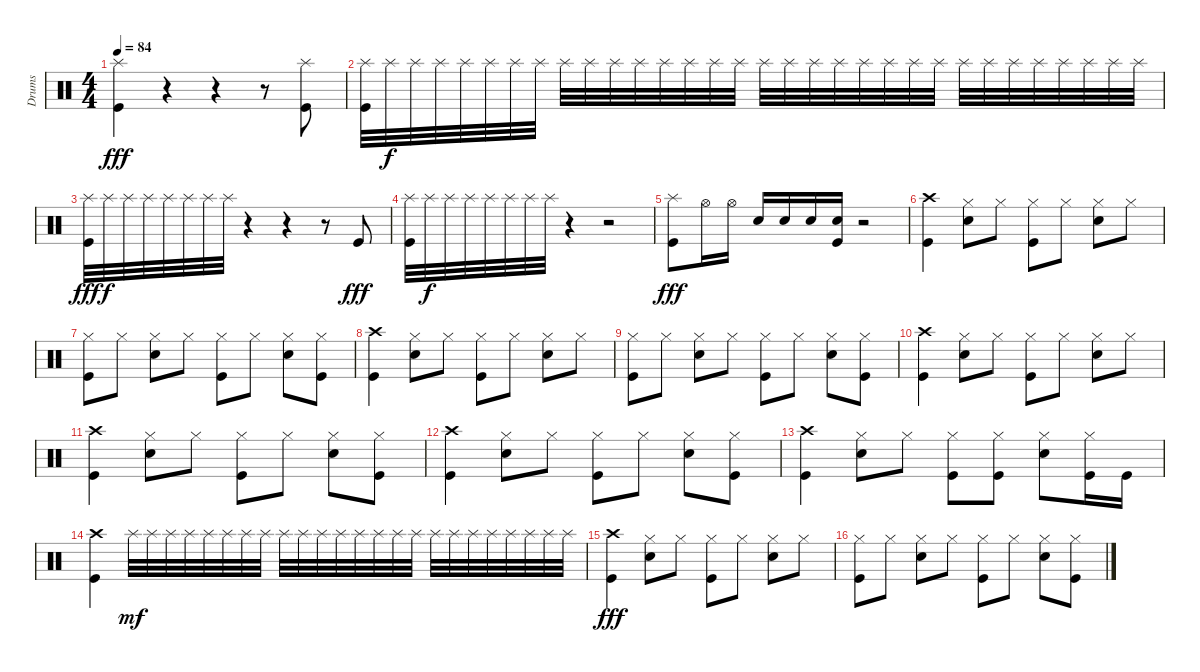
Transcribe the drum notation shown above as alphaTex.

\track ("Drums" "Drums") {instrument percussion}
\staff {score}
\articulation defaults
\ts (4 4)
\tempo 84
\clef neutral
\ks c
("Splash (hit)" "Kick (hit)").4{dy fff} r.4 r.4 r.8 ("Splash (hit)" "Kick (hit)").8 |
("Splash (hit)" "Kick (hit)").32 "Splash (hit)".32{dy f} "Splash (hit)".32 "Splash (hit)".32 "Splash (hit)".32 "Splash (hit)".32 "Splash (hit)".32 "Splash (hit)".32 "Splash (hit)".32 "Splash (hit)".32 "Splash (hit)".32 "Splash (hit)".32 "Splash (hit)".32 "Splash (hit)".32 "Splash (hit)".32 "Splash (hit)".32 "Splash (hit)".32 "Splash (hit)".32 "Splash (hit)".32 "Splash (hit)".32 "Splash (hit)".32 "Splash (hit)".32 "Splash (hit)".32 "Splash (hit)".32 "Splash (hit)".32 "Splash (hit)".32 "Splash (hit)".32 "Splash (hit)".32 "Splash (hit)".32 "Splash (hit)".32 "Splash (hit)".32 "Splash (hit)".32 |
("Splash (hit)" "Kick (hit)").32{dy fff} "Splash (hit)".32{dy f} "Splash (hit)".32 "Splash (hit)".32 "Splash (hit)".32 "Splash (hit)".32 "Splash (hit)".32 "Splash (hit)".32 r.4 r.4 r.8 "Kick (hit)".8{dy fff} |
("Splash (hit)" "Kick (hit)").32 "Splash (hit)".32{dy f} "Splash (hit)".32 "Splash (hit)".32 "Splash (hit)".32 "Splash (hit)".32 "Splash (hit)".32 "Splash (hit)".32 r.4 r.2 |
("Splash (hit)" "Kick (hit)").8{dy fff} "Hi-Hat (open)".16 "Hi-Hat (open)".16 "Snare (hit) 2".16 "Snare (hit) 2".16 "Snare (hit) 2".16 ("Snare (hit) 2" "Kick (hit)").16 r.2 |
("Crash high (hit)" "Kick (hit)").4 ("Hi-Hat (closed)" "Snare (hit) 2").8 "Hi-Hat (closed)".8 ("Hi-Hat (closed)" "Kick (hit)").8 "Hi-Hat (closed)".8 ("Hi-Hat (closed)" "Snare (hit) 2").8 "Hi-Hat (closed)".8 |
("Hi-Hat (closed)" "Kick (hit)").8 "Hi-Hat (closed)".8 ("Hi-Hat (closed)" "Snare (hit) 2").8 "Hi-Hat (closed)".8 ("Hi-Hat (closed)" "Kick (hit)").8 "Hi-Hat (closed)".8 ("Hi-Hat (closed)" "Snare (hit) 2").8 ("Hi-Hat (closed)" "Kick (hit)").8 |
("Crash high (hit)" "Kick (hit)").4 ("Hi-Hat (closed)" "Snare (hit) 2").8 "Hi-Hat (closed)".8 ("Hi-Hat (closed)" "Kick (hit)").8 "Hi-Hat (closed)".8 ("Hi-Hat (closed)" "Snare (hit) 2").8 "Hi-Hat (closed)".8 |
("Hi-Hat (closed)" "Kick (hit)").8 "Hi-Hat (closed)".8 ("Hi-Hat (closed)" "Snare (hit) 2").8 "Hi-Hat (closed)".8 ("Hi-Hat (closed)" "Kick (hit)").8 "Hi-Hat (closed)".8 ("Hi-Hat (closed)" "Snare (hit) 2").8 ("Hi-Hat (closed)" "Kick (hit)").8 |
("Crash high (hit)" "Kick (hit)").4 ("Hi-Hat (closed)" "Snare (hit) 2").8 "Hi-Hat (closed)".8 ("Hi-Hat (closed)" "Kick (hit)").8 "Hi-Hat (closed)".8 ("Hi-Hat (closed)" "Snare (hit) 2").8 "Hi-Hat (closed)".8 |
("Crash high (hit)" "Kick (hit)").4 ("Hi-Hat (closed)" "Snare (hit) 2").8 "Hi-Hat (closed)".8 ("Hi-Hat (closed)" "Kick (hit)").8 "Hi-Hat (closed)".8 ("Hi-Hat (closed)" "Snare (hit) 2").8 ("Hi-Hat (closed)" "Kick (hit)").8 |
("Crash high (hit)" "Kick (hit)").4 ("Hi-Hat (closed)" "Snare (hit) 2").8 "Hi-Hat (closed)".8 ("Hi-Hat (closed)" "Kick (hit)").8 "Hi-Hat (closed)".8 ("Hi-Hat (closed)" "Snare (hit) 2").8 ("Hi-Hat (closed)" "Kick (hit)").8 |
("Crash high (hit)" "Kick (hit)").4 ("Hi-Hat (closed)" "Snare (hit) 2").8 "Hi-Hat (closed)".8 ("Hi-Hat (closed)" "Kick (hit)").8 ("Hi-Hat (closed)" "Kick (hit)").8 ("Hi-Hat (closed)" "Snare (hit) 2").8 ("Hi-Hat (closed)" "Kick (hit)").16 "Kick (hit)".16 |
("Crash high (hit)" "Kick (hit)").4 "Splash (hit)".32{dy mf} "Splash (hit)".32 "Splash (hit)".32 "Splash (hit)".32 "Splash (hit)".32 "Splash (hit)".32 "Splash (hit)".32 "Splash (hit)".32 "Splash (hit)".32 "Splash (hit)".32 "Splash (hit)".32 "Splash (hit)".32 "Splash (hit)".32 "Splash (hit)".32 "Splash (hit)".32 "Splash (hit)".32 "Splash (hit)".32 "Splash (hit)".32 "Splash (hit)".32 "Splash (hit)".32 "Splash (hit)".32 "Splash (hit)".32 "Splash (hit)".32 "Splash (hit)".32 |
("Crash high (hit)" "Kick (hit)").4{dy fff} ("Hi-Hat (closed)" "Snare (hit) 2").8 "Hi-Hat (closed)".8 ("Hi-Hat (closed)" "Kick (hit)").8 "Hi-Hat (closed)".8 ("Hi-Hat (closed)" "Snare (hit) 2").8 "Hi-Hat (closed)".8 |
("Hi-Hat (closed)" "Kick (hit)").8 "Hi-Hat (closed)".8 ("Hi-Hat (closed)" "Snare (hit) 2").8 "Hi-Hat (closed)".8 ("Hi-Hat (closed)" "Kick (hit)").8 "Hi-Hat (closed)".8 ("Hi-Hat (closed)" "Snare (hit) 2").8 ("Hi-Hat (closed)" "Kick (hit)").8
